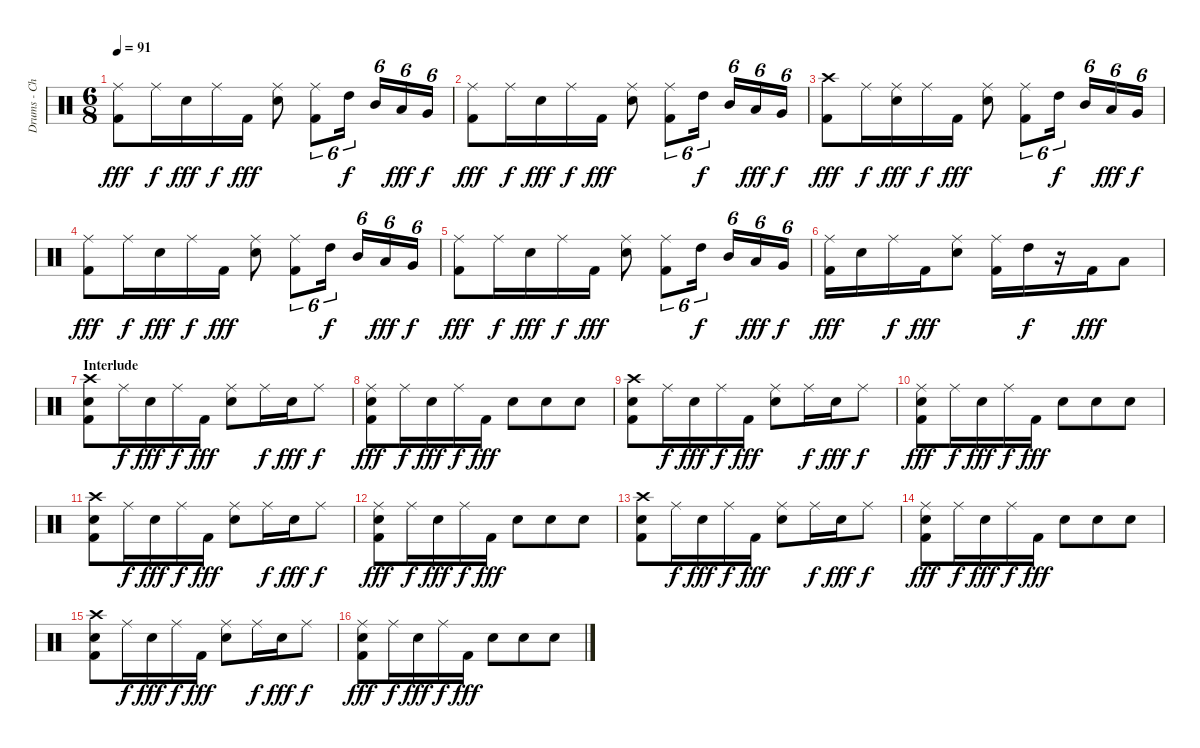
\track ("Drums - Chad" "Drums - Ch") {instrument percussion}
\staff {score}
\articulation defaults
\ts (6 8)
\tempo 91
\clef neutral
\ks c
("Ride (middle)" "Kick (hit) 2").8{dy fff} "Ride (middle)".16{dy f} "Electric Snare (hit)".16{dy fff} "Ride (middle)".16{dy f} "Kick (hit) 2".16{dy fff} ("Ride (middle)" "Electric Snare (hit)").8 ("Ride (middle)" "Kick (hit) 2").8{tu (6 4)} "High Tom (hit)".16{tu (6 4) dy f} "Mid Tom (hit)".16{tu (6 4)} "Low Tom (hit)".16{tu (6 4) dy fff} "Very Low Tom (hit)".16{tu (6 4) dy f} |
("Ride (middle)" "Kick (hit) 2").8{dy fff} "Ride (middle)".16{dy f} "Electric Snare (hit)".16{dy fff} "Ride (middle)".16{dy f} "Kick (hit) 2".16{dy fff} ("Ride (middle)" "Electric Snare (hit)").8 ("Ride (middle)" "Kick (hit) 2").8{tu (6 4)} "High Tom (hit)".16{tu (6 4) dy f} "Mid Tom (hit)".16{tu (6 4)} "Low Tom (hit)".16{tu (6 4) dy fff} "Very Low Tom (hit)".16{tu (6 4) dy f} |
("Crash high (hit)" "Kick (hit) 2").8{dy fff} "Ride (middle)".16{dy f} ("Ride (middle)" "Electric Snare (hit)").16{dy fff} "Ride (middle)".16{dy f} "Kick (hit) 2".16{dy fff} ("Ride (middle)" "Electric Snare (hit)").8 ("Ride (middle)" "Kick (hit) 2").8{tu (6 4)} "High Tom (hit)".16{tu (6 4) dy f} "Mid Tom (hit)".16{tu (6 4)} "Low Tom (hit)".16{tu (6 4) dy fff} "Very Low Tom (hit)".16{tu (6 4) dy f} |
("Ride (middle)" "Kick (hit) 2").8{dy fff} "Ride (middle)".16{dy f} "Electric Snare (hit)".16{dy fff} "Ride (middle)".16{dy f} "Kick (hit) 2".16{dy fff} ("Ride (middle)" "Electric Snare (hit)").8 ("Ride (middle)" "Kick (hit) 2").8{tu (6 4)} "High Tom (hit)".16{tu (6 4) dy f} "Mid Tom (hit)".16{tu (6 4)} "Low Tom (hit)".16{tu (6 4) dy fff} "Very Low Tom (hit)".16{tu (6 4) dy f} |
("Ride (middle)" "Kick (hit) 2").8{dy fff} "Ride (middle)".16{dy f} "Electric Snare (hit)".16{dy fff} "Ride (middle)".16{dy f} "Kick (hit) 2".16{dy fff} ("Ride (middle)" "Electric Snare (hit)").8 ("Ride (middle)" "Kick (hit) 2").8{tu (6 4)} "High Tom (hit)".16{tu (6 4) dy f} "Mid Tom (hit)".16{tu (6 4)} "Low Tom (hit)".16{tu (6 4) dy fff} "Very Low Tom (hit)".16{tu (6 4) dy f} |
("Ride (middle)" "Kick (hit) 2").16{dy fff} "Electric Snare (hit)".16 "Ride (middle)".16{dy f} "Kick (hit) 2".16{dy fff} ("Ride (middle)" "Electric Snare (hit)").8 ("Ride (middle)" "Kick (hit) 2").16 "High Tom (hit)".16{dy f} r.16 "Kick (hit) 2".16{dy fff} "Low Tom (hit)".8 |
\section ("" "Interlude")
("Crash high (hit)" "Electric Snare (hit)" "Kick (hit) 2").8 "Ride (middle)".16{dy f} "Electric Snare (hit)".16{dy fff} "Ride (middle)".16{dy f} "Kick (hit) 2".16{dy fff} ("Ride (middle)" "Electric Snare (hit)").8 "Ride (middle)".16{dy f} "Electric Snare (hit)".16{dy fff} "Ride (middle)".8{dy f} |
("Ride (middle)" "Electric Snare (hit)" "Kick (hit) 2").8{dy fff} "Ride (middle)".16{dy f} "Electric Snare (hit)".16{dy fff} "Ride (middle)".16{dy f} "Kick (hit) 2".16{dy fff} "Electric Snare (hit)".8 "Electric Snare (hit)".8 "Electric Snare (hit)".8 |
("Crash high (hit)" "Electric Snare (hit)" "Kick (hit) 2").8 "Ride (middle)".16{dy f} "Electric Snare (hit)".16{dy fff} "Ride (middle)".16{dy f} "Kick (hit) 2".16{dy fff} ("Ride (middle)" "Electric Snare (hit)").8 "Ride (middle)".16{dy f} "Electric Snare (hit)".16{dy fff} "Ride (middle)".8{dy f} |
("Ride (middle)" "Electric Snare (hit)" "Kick (hit) 2").8{dy fff} "Ride (middle)".16{dy f} "Electric Snare (hit)".16{dy fff} "Ride (middle)".16{dy f} "Kick (hit) 2".16{dy fff} "Electric Snare (hit)".8 "Electric Snare (hit)".8 "Electric Snare (hit)".8 |
("Crash high (hit)" "Electric Snare (hit)" "Kick (hit) 2").8 "Ride (middle)".16{dy f} "Electric Snare (hit)".16{dy fff} "Ride (middle)".16{dy f} "Kick (hit) 2".16{dy fff} ("Ride (middle)" "Electric Snare (hit)").8 "Ride (middle)".16{dy f} "Electric Snare (hit)".16{dy fff} "Ride (middle)".8{dy f} |
("Ride (middle)" "Electric Snare (hit)" "Kick (hit) 2").8{dy fff} "Ride (middle)".16{dy f} "Electric Snare (hit)".16{dy fff} "Ride (middle)".16{dy f} "Kick (hit) 2".16{dy fff} "Electric Snare (hit)".8 "Electric Snare (hit)".8 "Electric Snare (hit)".8 |
("Crash high (hit)" "Electric Snare (hit)" "Kick (hit) 2").8 "Ride (middle)".16{dy f} "Electric Snare (hit)".16{dy fff} "Ride (middle)".16{dy f} "Kick (hit) 2".16{dy fff} ("Ride (middle)" "Electric Snare (hit)").8 "Ride (middle)".16{dy f} "Electric Snare (hit)".16{dy fff} "Ride (middle)".8{dy f} |
("Ride (middle)" "Electric Snare (hit)" "Kick (hit) 2").8{dy fff} "Ride (middle)".16{dy f} "Electric Snare (hit)".16{dy fff} "Ride (middle)".16{dy f} "Kick (hit) 2".16{dy fff} "Electric Snare (hit)".8 "Electric Snare (hit)".8 "Electric Snare (hit)".8 |
("Crash high (hit)" "Electric Snare (hit)" "Kick (hit) 2").8 "Ride (middle)".16{dy f} "Electric Snare (hit)".16{dy fff} "Ride (middle)".16{dy f} "Kick (hit) 2".16{dy fff} ("Ride (middle)" "Electric Snare (hit)").8 "Ride (middle)".16{dy f} "Electric Snare (hit)".16{dy fff} "Ride (middle)".8{dy f} |
("Ride (middle)" "Electric Snare (hit)" "Kick (hit) 2").8{dy fff} "Ride (middle)".16{dy f} "Electric Snare (hit)".16{dy fff} "Ride (middle)".16{dy f} "Kick (hit) 2".16{dy fff} "Electric Snare (hit)".8 "Electric Snare (hit)".8 "Electric Snare (hit)".8
